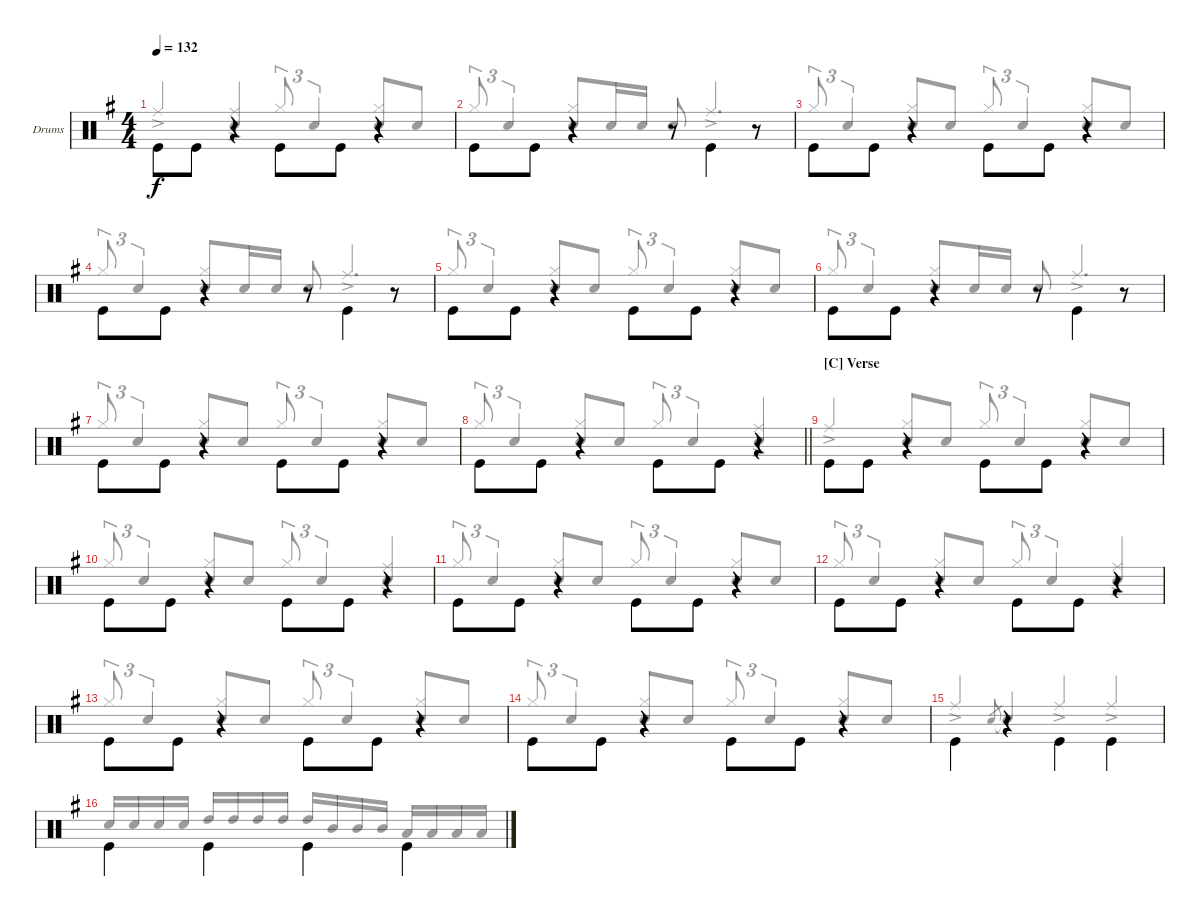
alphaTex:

\bracketExtendMode groupsimilarinstruments
\firstSystemTrackNameOrientation horizontal
\otherSystemsTrackNameOrientation horizontal
\track ("Drums" "Drums") {instrument percussion}
\staff {score}
\articulation defaults
\voice
\ts (4 4)
\tempo 132
\clef neutral
\scale
1.07314
\ks g "Kick (hit)".8{dy f beam invert} "Kick (hit)".8
r.4 "Kick (hit)".8{beam invert} "Kick (hit)".8 r.4 |
\scale
0.92686 "Kick (hit)".8{beam invert} "Kick (hit)".8 r.4 r.8{beam invert} "Kick (hit)".4{beam invert} r.8 |
\scale
1.04288 "Kick (hit)".8{beam invert} "Kick (hit)".8 r.4 "Kick (hit)".8{beam invert} "Kick (hit)".8 r.4 |
\scale
0.957125 "Kick (hit)".8{beam invert} "Kick (hit)".8 r.4 r.8{beam invert} "Kick (hit)".4{beam invert} r.8 |
\scale
1.04288 "Kick (hit)".8{beam invert} "Kick (hit)".8 r.4 "Kick (hit)".8{beam invert} "Kick (hit)".8 r.4 |
\scale
0.957125 "Kick (hit)".8{beam invert} "Kick (hit)".8 r.4 r.8{beam invert} "Kick (hit)".4{beam invert} r.8 |
\scale
1.04288 "Kick (hit)".8{beam invert} "Kick (hit)".8 r.4 "Kick (hit)".8{beam invert} "Kick (hit)".8 r.4 |
\scale
0.957125
\barLineRight lightlight "Kick (hit)".8{beam invert} "Kick (hit)".8
r.4 "Kick (hit)".8{beam invert} "Kick (hit)".8 r.4 |
\section ("C" "Verse")
\scale
1.04288 "Kick (hit)".8{beam invert} "Kick (hit)".8 r.4 "Kick (hit)".8{beam invert} "Kick (hit)".8 r.4 |
\scale
0.957125 "Kick (hit)".8{beam invert} "Kick (hit)".8 r.4 "Kick (hit)".8{beam invert} "Kick (hit)".8 r.4 |
\scale
1.04288 "Kick (hit)".8{beam invert} "Kick (hit)".8 r.4 "Kick (hit)".8{beam invert} "Kick (hit)".8 r.4 |
\scale
0.957125 "Kick (hit)".8{beam invert} "Kick (hit)".8 r.4 "Kick (hit)".8{beam invert} "Kick (hit)".8 r.4 |
\scale
1.04288 "Kick (hit)".8{beam invert} "Kick (hit)".8 r.4 "Kick (hit)".8{beam invert} "Kick (hit)".8 r.4 |
\scale
0.957125 "Kick (hit)".8{beam invert} "Kick (hit)".8 r.4 "Kick (hit)".8{beam invert} "Kick (hit)".8 r.4 |
\scale
1.04288 "Kick (hit)".4{beam invert} r.4 "Kick (hit)".4{beam invert} "Kick (hit)".4{beam invert} |
\scale
0.957125 "Kick (hit)".4{beam invert} "Kick (hit)".4{beam invert} "Kick (hit)".4{beam invert} "Kick (hit)".4{beam invert}
\voice
\clef neutral
\ottava regular
\simile none
\scale
1.07314
\ks g "Ride (middle)"{ac}.4{dy f beam invert}
("Snare (hit) 2" "Ride (middle)"{ac}).4{beam invert} "Hi-Hat (closed)".8{tu (3 2) beam invert} "Snare (hit) 2".4{tu (3 2) beam invert} ("Hi-Hat (closed)" "Snare (hit) 2").8{beam invert} "Snare (hit) 2".8 |
\scale
0.92686 "Hi-Hat (closed)".8{tu (3 2) beam invert} "Snare (hit) 2".4{tu (3 2) beam invert} ("Hi-Hat (closed)" "Snare (hit) 2").8{beam invert} "Snare (hit) 2".16 "Snare (hit) 2".16 "Snare (hit) 2".8{beam invert} "Ride (middle)"{ac}.4{d beam invert} |
\scale
1.04288 "Hi-Hat (closed)".8{tu (3 2) beam invert} "Snare (hit) 2".4{tu (3 2) beam invert} ("Hi-Hat (closed)" "Snare (hit) 2").8{beam invert} "Snare (hit) 2".8 "Hi-Hat (closed)".8{tu (3 2) beam invert} "Snare (hit) 2".4{tu (3 2) beam invert} ("Hi-Hat (closed)" "Snare (hit) 2").8{beam invert} "Snare (hit) 2".8 |
\scale
0.957125 "Hi-Hat (closed)".8{tu (3 2) beam invert} "Snare (hit) 2".4{tu (3 2) beam invert} ("Hi-Hat (closed)" "Snare (hit) 2").8{beam invert} "Snare (hit) 2".16 "Snare (hit) 2".16 "Snare (hit) 2".8{beam invert} "Ride (middle)"{ac}.4{d beam invert} |
\scale
1.04288 "Hi-Hat (closed)".8{tu (3 2) beam invert} "Snare (hit) 2".4{tu (3 2) beam invert} ("Hi-Hat (closed)" "Snare (hit) 2").8{beam invert} "Snare (hit) 2".8 "Hi-Hat (closed)".8{tu (3 2) beam invert} "Snare (hit) 2".4{tu (3 2) beam invert} ("Hi-Hat (closed)" "Snare (hit) 2").8{beam invert} "Snare (hit) 2".8 |
\scale
0.957125 "Hi-Hat (closed)".8{tu (3 2) beam invert} "Snare (hit) 2".4{tu (3 2) beam invert} ("Hi-Hat (closed)" "Snare (hit) 2").8{beam invert} "Snare (hit) 2".16 "Snare (hit) 2".16 "Snare (hit) 2".8{beam invert} "Ride (middle)"{ac}.4{d beam invert} |
\scale
1.04288 "Hi-Hat (closed)".8{tu (3 2) beam invert} "Snare (hit) 2".4{tu (3 2) beam invert} ("Hi-Hat (closed)" "Snare (hit) 2").8{beam invert} "Snare (hit) 2".8 "Hi-Hat (closed)".8{tu (3 2) beam invert} "Snare (hit) 2".4{tu (3 2) beam invert} ("Hi-Hat (closed)" "Snare (hit) 2").8{beam invert} "Snare (hit) 2".8 |
\scale
0.957125
\barLineRight lightlight "Hi-Hat (closed)".8{tu (3 2) beam invert} "Snare (hit) 2".4{tu (3 2) beam invert}
("Hi-Hat (closed)" "Snare (hit) 2").8{beam invert} "Snare (hit) 2".8 "Hi-Hat (closed)".8{tu (3 2) beam invert} "Snare (hit) 2".4{tu (3 2) beam invert} ("Snare (hit) 2" "Ride (middle)"{ac}).4{beam invert} |
\scale
1.04288 "Ride (middle)"{ac}.4{beam invert} ("Hi-Hat (closed)" "Snare (hit) 2").8{beam invert} "Snare (hit) 2".8 "Hi-Hat (closed)".8{tu (3 2) beam invert} "Snare (hit) 2".4{tu (3 2) beam invert} ("Hi-Hat (closed)" "Snare (hit) 2").8{beam invert} "Snare (hit) 2".8 |
\scale
0.957125 "Hi-Hat (closed)".8{tu (3 2) beam invert} "Snare (hit) 2".4{tu (3 2) beam invert} ("Hi-Hat (closed)" "Snare (hit) 2").8{beam invert} "Snare (hit) 2".8 "Hi-Hat (closed)".8{tu (3 2) beam invert} "Snare (hit) 2".4{tu (3 2) beam invert} ("Snare (hit) 2" "Ride (middle)"{ac}).4{beam invert} |
\scale
1.04288 "Hi-Hat (closed)".8{tu (3 2) beam invert} "Snare (hit) 2".4{tu (3 2) beam invert} ("Hi-Hat (closed)" "Snare (hit) 2").8{beam invert} "Snare (hit) 2".8 "Hi-Hat (closed)".8{tu (3 2) beam invert} "Snare (hit) 2".4{tu (3 2) beam invert} ("Hi-Hat (closed)" "Snare (hit) 2").8{beam invert} "Snare (hit) 2".8 |
\scale
0.957125 "Hi-Hat (closed)".8{tu (3 2) beam invert} "Snare (hit) 2".4{tu (3 2) beam invert} ("Hi-Hat (closed)" "Snare (hit) 2").8{beam invert} "Snare (hit) 2".8 "Hi-Hat (closed)".8{tu (3 2) beam invert} "Snare (hit) 2".4{tu (3 2) beam invert} ("Snare (hit) 2" "Ride (middle)"{ac}).4{beam invert} |
\scale
1.04288 "Hi-Hat (closed)".8{tu (3 2) beam invert} "Snare (hit) 2".4{tu (3 2) beam invert} ("Hi-Hat (closed)" "Snare (hit) 2").8{beam invert} "Snare (hit) 2".8 "Hi-Hat (closed)".8{tu (3 2) beam invert} "Snare (hit) 2".4{tu (3 2) beam invert} ("Hi-Hat (closed)" "Snare (hit) 2").8{beam invert} "Snare (hit) 2".8 |
\scale
0.957125 "Hi-Hat (closed)".8{tu (3 2) beam invert} "Snare (hit) 2".4{tu (3 2) beam invert} ("Hi-Hat (closed)" "Snare (hit) 2").8{beam invert} "Snare (hit) 2".8 "Hi-Hat (closed)".8{tu (3 2) beam invert} "Snare (hit) 2".4{tu (3 2) beam invert} ("Hi-Hat (closed)" "Snare (hit) 2").8{beam invert} "Snare (hit) 2".8 |
\scale
1.04288 "Ride (middle)"{ac}.4{beam invert} "Snare (hit) 2".8{gr beam invert} "Snare (hit) 2"{t}.4{beam invert} "Ride (middle)"{ac}.4{beam invert} "Ride (middle)"{ac}.4{beam invert} |
\scale
0.957125 "Snare (hit) 2".16{beam invert} "Snare (hit) 2".16 "Snare (hit) 2".16 "Snare (hit) 2".16 "High Tom (hit)".16{beam invert} "High Tom (hit)".16 "High Tom (hit)".16 "High Tom (hit)".16 "High Tom (hit)".16{beam invert} "Mid Tom (hit)".16 "Mid Tom (hit)".16 "Mid Tom (hit)".16 "Low Tom (hit)".16{beam invert} "Low Tom (hit)".16 "Low Tom (hit)".16 "Low Tom (hit)".16
